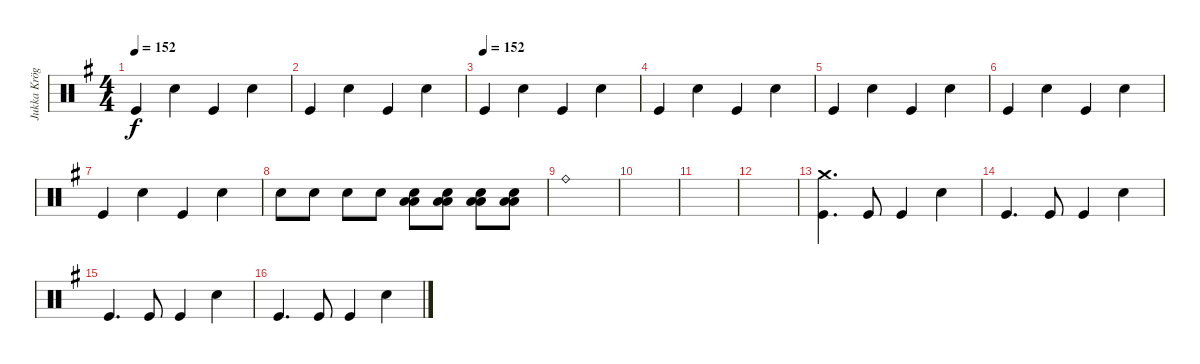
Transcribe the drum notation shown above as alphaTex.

\track ("Jukka Kröger" "Jukka Krög") {instrument percussion}
\staff {score}
\articulation defaults
\ts (4 4)
\tempo 152
\clef neutral
\ks eminor "Kick (hit)".4{dy f} "Snare (hit) 2".4 "Kick (hit)".4 "Snare (hit) 2".4
|
"Kick (hit)".4 "Snare (hit) 2".4 "Kick (hit)".4 "Snare (hit) 2".4 |
\tempo (152)
"Kick (hit)".4 "Snare (hit) 2".4 "Kick (hit)".4 "Snare (hit) 2".4 |
"Kick (hit)".4 "Snare (hit) 2".4 "Kick (hit)".4 "Snare (hit) 2".4 |
"Kick (hit)".4 "Snare (hit) 2".4 "Kick (hit)".4 "Snare (hit) 2".4 |
"Kick (hit)".4 "Snare (hit) 2".4 "Kick (hit)".4 "Snare (hit) 2".4 |
"Kick (hit)".4 "Snare (hit) 2".4 "Kick (hit)".4 "Snare (hit) 2".4 |
"Snare (hit) 2".8 "Snare (hit) 2".8 "Snare (hit) 2".8 "Snare (hit) 2".8 ("Snare (hit) 2" "Low Tom (hit)" "Low Floor Tom (hit)").8 ("Snare (hit) 2" "Low Tom (hit)" "Low Floor Tom (hit)").8 ("Snare (hit) 2" "Low Tom (hit)" "Low Floor Tom (hit)").8 ("Snare (hit) 2" "Low Tom (hit)" "Low Floor Tom (hit)").8 |
"Ride (bell)".1 |
|
|
|
("Crash medium (hit)" "Kick (hit)").4{d} "Kick (hit)".8 "Kick (hit)".4 "Snare (hit) 2".4 |
"Kick (hit)".4{d} "Kick (hit)".8 "Kick (hit)".4 "Snare (hit) 2".4 |
"Kick (hit)".4{d} "Kick (hit)".8 "Kick (hit)".4 "Snare (hit) 2".4 |
"Kick (hit)".4{d} "Kick (hit)".8 "Kick (hit)".4 "Snare (hit) 2".4
